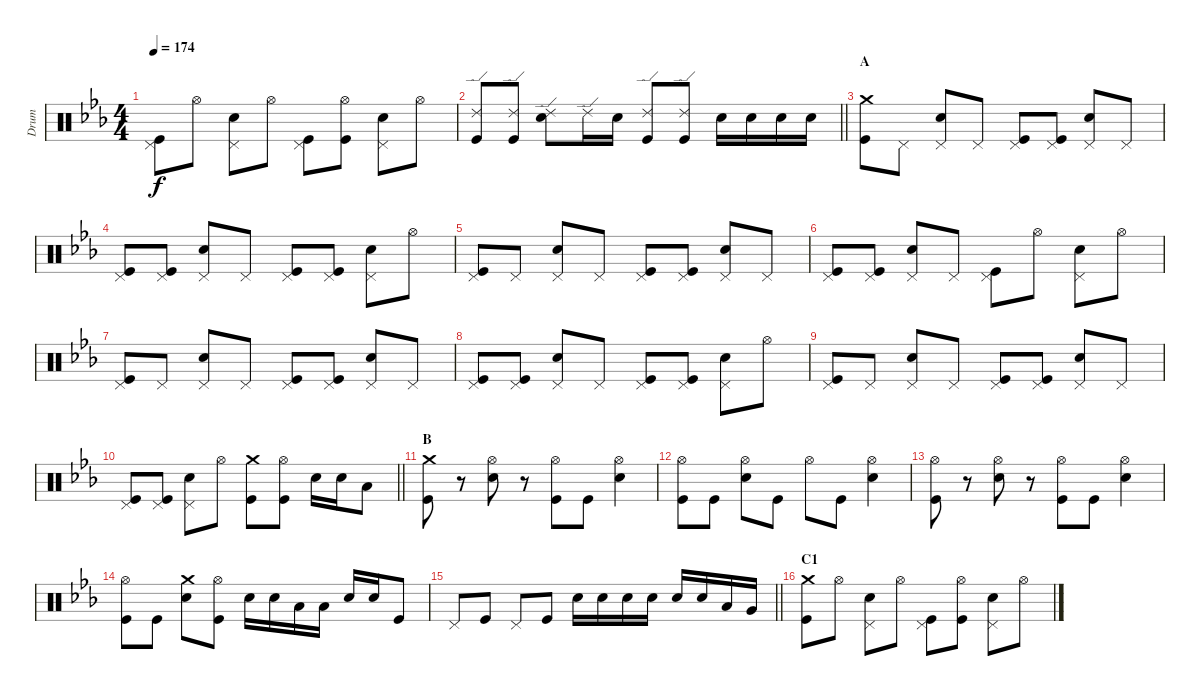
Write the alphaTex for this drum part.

\track ("Drum" "Drum") {instrument percussion}
\staff {score}
\articulation defaults
\ts (4 4)
\tempo 174
\clef neutral
\ks eb
("Pedal Hi-Hat (hit)" "Kick (hit)").8{dy f} "Hi-Hat (open)".8 ("Pedal Hi-Hat (hit)" "Snare (hit) 2").8 "Hi-Hat (open)".8 ("Pedal Hi-Hat (hit)" "Kick (hit)").8 ("Hi-Hat (open)" "Kick (hit)").8 ("Pedal Hi-Hat (hit)" "Snare (hit) 2").8 "Hi-Hat (open)".8 |
\barLineRight lightlight
("Ride (edge) 2" "Kick (hit)").8 ("Ride (edge) 2" "Kick (hit)").8 ("Ride (edge) 2" "Snare (hit) 2").8 "Ride (edge) 2".16 "Snare (hit) 2".16 ("Ride (edge) 2" "Kick (hit)").8 ("Ride (edge) 2" "Kick (hit)").8 "Snare (hit) 2".16 "Snare (hit) 2".16 "Snare (hit) 2".16 "Snare (hit) 2".16 |
\section ("" "A")
("Crash medium (hit)" "Kick (hit)").8 "Pedal Hi-Hat (hit)".8 ("Pedal Hi-Hat (hit)" "Snare (hit) 2").8 "Pedal Hi-Hat (hit)".8 ("Pedal Hi-Hat (hit)" "Kick (hit)").8 ("Pedal Hi-Hat (hit)" "Kick (hit)").8 ("Pedal Hi-Hat (hit)" "Snare (hit) 2").8 "Pedal Hi-Hat (hit)".8 |
("Pedal Hi-Hat (hit)" "Kick (hit)").8 ("Pedal Hi-Hat (hit)" "Kick (hit)").8 ("Pedal Hi-Hat (hit)" "Snare (hit) 2").8 "Pedal Hi-Hat (hit)".8 ("Pedal Hi-Hat (hit)" "Kick (hit)").8 ("Pedal Hi-Hat (hit)" "Kick (hit)").8 ("Pedal Hi-Hat (hit)" "Snare (hit) 2").8 "Hi-Hat (open)".8 |
("Pedal Hi-Hat (hit)" "Kick (hit)").8 "Pedal Hi-Hat (hit)".8 ("Pedal Hi-Hat (hit)" "Snare (hit) 2").8 "Pedal Hi-Hat (hit)".8 ("Pedal Hi-Hat (hit)" "Kick (hit)").8 ("Pedal Hi-Hat (hit)" "Kick (hit)").8 ("Pedal Hi-Hat (hit)" "Snare (hit) 2").8 "Pedal Hi-Hat (hit)".8 |
("Pedal Hi-Hat (hit)" "Kick (hit)").8 ("Pedal Hi-Hat (hit)" "Kick (hit)").8 ("Pedal Hi-Hat (hit)" "Snare (hit) 2").8 "Pedal Hi-Hat (hit)".8 ("Pedal Hi-Hat (hit)" "Kick (hit)").8 "Hi-Hat (open)".8 ("Pedal Hi-Hat (hit)" "Snare (hit) 2").8 "Hi-Hat (open)".8 |
("Pedal Hi-Hat (hit)" "Kick (hit)").8 "Pedal Hi-Hat (hit)".8 ("Pedal Hi-Hat (hit)" "Snare (hit) 2").8 "Pedal Hi-Hat (hit)".8 ("Pedal Hi-Hat (hit)" "Kick (hit)").8 ("Pedal Hi-Hat (hit)" "Kick (hit)").8 ("Pedal Hi-Hat (hit)" "Snare (hit) 2").8 "Pedal Hi-Hat (hit)".8 |
("Pedal Hi-Hat (hit)" "Kick (hit)").8 ("Pedal Hi-Hat (hit)" "Kick (hit)").8 ("Pedal Hi-Hat (hit)" "Snare (hit) 2").8 "Pedal Hi-Hat (hit)".8 ("Pedal Hi-Hat (hit)" "Kick (hit)").8 ("Pedal Hi-Hat (hit)" "Kick (hit)").8 ("Pedal Hi-Hat (hit)" "Snare (hit) 2").8 "Hi-Hat (open)".8 |
("Pedal Hi-Hat (hit)" "Kick (hit)").8 "Pedal Hi-Hat (hit)".8 ("Pedal Hi-Hat (hit)" "Snare (hit) 2").8 "Pedal Hi-Hat (hit)".8 ("Pedal Hi-Hat (hit)" "Kick (hit)").8 ("Pedal Hi-Hat (hit)" "Kick (hit)").8 ("Pedal Hi-Hat (hit)" "Snare (hit) 2").8 "Pedal Hi-Hat (hit)".8 |
\barLineRight lightlight
("Pedal Hi-Hat (hit)" "Kick (hit)").8 ("Pedal Hi-Hat (hit)" "Kick (hit)").8 ("Pedal Hi-Hat (hit)" "Snare (hit) 2").8 "Hi-Hat (open)".8 ("Crash medium (hit)" "Kick (hit)").8 ("Hi-Hat (open)" "Kick (hit)").8 "Snare (hit) 2".16 "Snare (hit) 2".16 "Low Tom (hit)".8 |
\section ("" "B")
("Crash medium (hit)" "Kick (hit)").8 r.8 ("Hi-Hat (open)" "Snare (hit) 2").8 r.8 ("Hi-Hat (open)" "Kick (hit)").8 "Kick (hit)".8 ("Hi-Hat (open)" "Snare (hit) 2").4 |
("Hi-Hat (open)" "Kick (hit)").8 "Kick (hit)".8 ("Hi-Hat (open)" "Snare (hit) 2").8 "Kick (hit)".8 "Hi-Hat (open)".8 "Kick (hit)".8 ("Hi-Hat (open)" "Snare (hit) 2").4 |
("Hi-Hat (open)" "Kick (hit)").8 r.8 ("Hi-Hat (open)" "Snare (hit) 2").8 r.8 ("Hi-Hat (open)" "Kick (hit)").8 "Kick (hit)".8 ("Hi-Hat (open)" "Snare (hit) 2").4 |
("Hi-Hat (open)" "Kick (hit)").8 "Kick (hit)".8 ("Crash medium (hit)" "Snare (hit) 2").8 ("Hi-Hat (open)" "Kick (hit)").8 "Snare (hit) 2".16 "Snare (hit) 2".16 "Low Tom (hit)".16 "Low Tom (hit)".16 "Snare (hit) 2".16 "Snare (hit) 2".16 "Kick (hit)".8 |
\barLineRight lightlight "Pedal Hi-Hat (hit)".8 "Kick (hit)".8 "Pedal Hi-Hat (hit)".8 "Kick (hit)".8 "Snare (hit) 2".16 "Snare (hit) 2".16 "Snare (hit) 2".16 "Snare (hit) 2".16 "Snare (hit) 2".16 "Snare (hit) 2".16 "Low Tom (hit)".16 "Very Low Tom (hit)".16
|
\section ("" "C1")
("Crash medium (hit)" "Kick (hit)").8 "Hi-Hat (open)".8 ("Pedal Hi-Hat (hit)" "Snare (hit) 2").8 "Hi-Hat (open)".8 ("Pedal Hi-Hat (hit)" "Kick (hit)").8 ("Hi-Hat (open)" "Kick (hit)").8 ("Pedal Hi-Hat (hit)" "Snare (hit) 2").8 "Hi-Hat (open)".8
